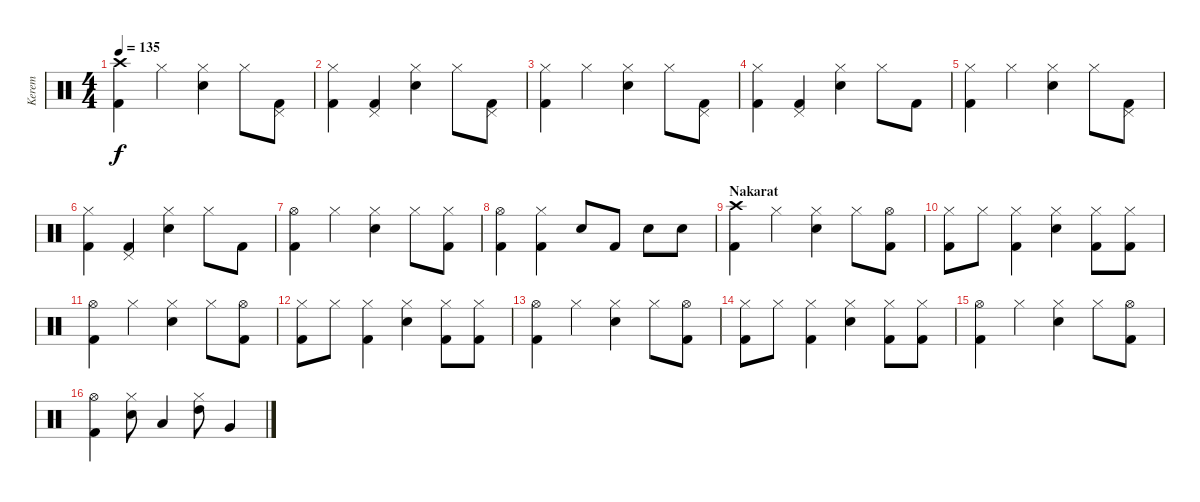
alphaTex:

\track ("Kerem" "Kerem") {instrument percussion}
\staff {score}
\articulation defaults
\ts (4 4)
\tempo 135
\clef neutral
\ks c
("Crash high (hit)" "Kick (hit) 2").4{dy f} "Hi-Hat (closed)".4 ("Electric Snare (hit)" "Hi-Hat (closed)").4 "Hi-Hat (closed)".8 ("Pedal Hi-Hat (hit)" "Kick (hit) 2").8 |
("Hi-Hat (closed)" "Kick (hit) 2").4 ("Pedal Hi-Hat (hit)" "Kick (hit) 2").4 ("Electric Snare (hit)" "Hi-Hat (closed)").4 "Hi-Hat (closed)".8 ("Pedal Hi-Hat (hit)" "Kick (hit) 2").8 |
("Hi-Hat (closed)" "Kick (hit) 2").4 "Hi-Hat (closed)".4 ("Electric Snare (hit)" "Hi-Hat (closed)").4 "Hi-Hat (closed)".8 ("Pedal Hi-Hat (hit)" "Kick (hit) 2").8 |
("Hi-Hat (closed)" "Kick (hit) 2").4 ("Pedal Hi-Hat (hit)" "Kick (hit) 2").4 ("Electric Snare (hit)" "Hi-Hat (closed)").4 "Hi-Hat (closed)".8 "Kick (hit) 2".8 |
("Hi-Hat (closed)" "Kick (hit) 2").4 "Hi-Hat (closed)".4 ("Electric Snare (hit)" "Hi-Hat (closed)").4 "Hi-Hat (closed)".8 ("Pedal Hi-Hat (hit)" "Kick (hit) 2").8 |
("Hi-Hat (closed)" "Kick (hit) 2").4 ("Pedal Hi-Hat (hit)" "Kick (hit) 2").4 ("Electric Snare (hit)" "Hi-Hat (closed)").4 "Hi-Hat (closed)".8 "Kick (hit) 2".8 |
("Hi-Hat (open)" "Kick (hit) 2").4 "Hi-Hat (closed)".4 ("Electric Snare (hit)" "Hi-Hat (closed)").4 "Hi-Hat (closed)".8 ("Hi-Hat (closed)" "Kick (hit) 2").8 |
("Kick (hit) 2" "Hi-Hat (open)").4 ("Kick (hit) 2" "Hi-Hat (closed)").4 "Electric Snare (hit)".8 "Kick (hit) 2".8 "Electric Snare (hit)".8 "Electric Snare (hit)".8 |
\section ("" "Nakarat")
("Crash high (hit)" "Kick (hit) 2").4 "Hi-Hat (closed)".4 ("Electric Snare (hit)" "Hi-Hat (closed)").4 "Hi-Hat (closed)".8 ("Hi-Hat (open)" "Kick (hit) 2").8 |
("Hi-Hat (closed)" "Kick (hit) 2").8 "Hi-Hat (closed)".8 ("Hi-Hat (closed)" "Kick (hit) 2").4 ("Electric Snare (hit)" "Hi-Hat (closed)").4 ("Hi-Hat (closed)" "Kick (hit) 2").8 ("Hi-Hat (closed)" "Kick (hit) 2").8 |
("Hi-Hat (open)" "Kick (hit) 2").4 "Hi-Hat (closed)".4 ("Electric Snare (hit)" "Hi-Hat (closed)").4 "Hi-Hat (closed)".8 ("Hi-Hat (open)" "Kick (hit) 2").8 |
("Hi-Hat (closed)" "Kick (hit) 2").8 "Hi-Hat (closed)".8 ("Hi-Hat (closed)" "Kick (hit) 2").4 ("Electric Snare (hit)" "Hi-Hat (closed)").4 ("Hi-Hat (closed)" "Kick (hit) 2").8 ("Hi-Hat (closed)" "Kick (hit) 2").8 |
("Hi-Hat (open)" "Kick (hit) 2").4 "Hi-Hat (closed)".4 ("Electric Snare (hit)" "Hi-Hat (closed)").4 "Hi-Hat (closed)".8 ("Hi-Hat (open)" "Kick (hit) 2").8 |
("Hi-Hat (closed)" "Kick (hit) 2").8 "Hi-Hat (closed)".8 ("Hi-Hat (closed)" "Kick (hit) 2").4 ("Electric Snare (hit)" "Hi-Hat (closed)").4 ("Hi-Hat (closed)" "Kick (hit) 2").8 ("Hi-Hat (closed)" "Kick (hit) 2").8 |
("Hi-Hat (open)" "Kick (hit) 2").4 "Hi-Hat (closed)".4 ("Electric Snare (hit)" "Hi-Hat (closed)").4 "Hi-Hat (closed)".8 ("Hi-Hat (open)" "Kick (hit) 2").8 |
("Kick (hit) 2" "Hi-Hat (open)").4 ("Electric Snare (hit)" "Hi-Hat (closed)").8 "Low Tom (hit)".4 ("High Tom (hit)" "Hi-Hat (closed)").8 "Very Low Tom (hit)".4
